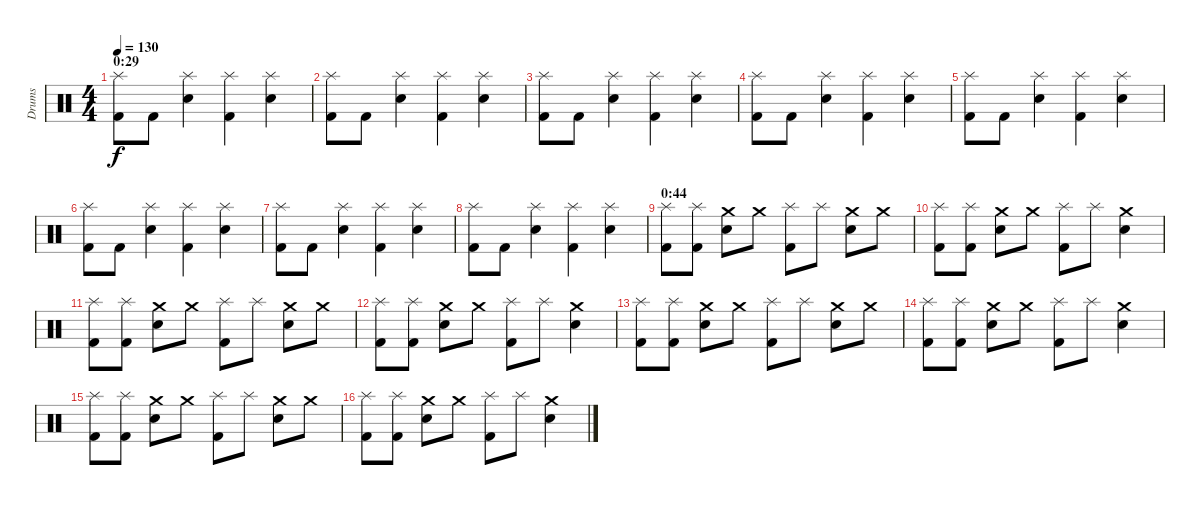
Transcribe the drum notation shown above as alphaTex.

\track ("Drums" "Drums") {instrument percussion}
\staff {score}
\articulation defaults
\ts (4 4)
\section ("" "0:29")
\tempo 130
\clef neutral
\ks c
("Splash (hit)" "Kick (hit) 2").8{dy f} "Kick (hit) 2".8 ("Splash (hit)" "Snare (hit) 2").4 ("Splash (hit)" "Kick (hit) 2").4 ("Splash (hit)" "Snare (hit) 2").4 |
("Splash (hit)" "Kick (hit) 2").8 "Kick (hit) 2".8 ("Splash (hit)" "Snare (hit) 2").4 ("Splash (hit)" "Kick (hit) 2").4 ("Splash (hit)" "Snare (hit) 2").4 |
("Splash (hit)" "Kick (hit) 2").8 "Kick (hit) 2".8 ("Splash (hit)" "Snare (hit) 2").4 ("Splash (hit)" "Kick (hit) 2").4 ("Splash (hit)" "Snare (hit) 2").4 |
("Splash (hit)" "Kick (hit) 2").8 "Kick (hit) 2".8 ("Splash (hit)" "Snare (hit) 2").4 ("Splash (hit)" "Kick (hit) 2").4 ("Splash (hit)" "Snare (hit) 2").4 |
("Splash (hit)" "Kick (hit) 2").8 "Kick (hit) 2".8 ("Splash (hit)" "Snare (hit) 2").4 ("Splash (hit)" "Kick (hit) 2").4 ("Splash (hit)" "Snare (hit) 2").4 |
("Splash (hit)" "Kick (hit) 2").8 "Kick (hit) 2".8 ("Splash (hit)" "Snare (hit) 2").4 ("Splash (hit)" "Kick (hit) 2").4 ("Splash (hit)" "Snare (hit) 2").4 |
("Splash (hit)" "Kick (hit) 2").8 "Kick (hit) 2".8 ("Splash (hit)" "Snare (hit) 2").4 ("Splash (hit)" "Kick (hit) 2").4 ("Splash (hit)" "Snare (hit) 2").4 |
("Splash (hit)" "Kick (hit) 2").8 "Kick (hit) 2".8 ("Splash (hit)" "Snare (hit) 2").4 ("Splash (hit)" "Kick (hit) 2").4 ("Splash (hit)" "Snare (hit) 2").4 |
\section ("" "0:44")
("Splash (hit)" "Kick (hit) 2").8 ("Splash (hit)" "Kick (hit) 2").8 ("Crash medium (hit)" "Snare (hit) 2").8 "Crash medium (hit)".8 ("Splash (hit)" "Kick (hit) 2").8 "Splash (hit)".8 ("Crash medium (hit)" "Snare (hit) 2").8 "Crash medium (hit)".8 |
("Splash (hit)" "Kick (hit) 2").8 ("Splash (hit)" "Kick (hit) 2").8 ("Crash medium (hit)" "Snare (hit) 2").8 "Crash medium (hit)".8 ("Splash (hit)" "Kick (hit) 2").8 "Splash (hit)".8 ("Crash medium (hit)" "Snare (hit) 2").4 |
("Splash (hit)" "Kick (hit) 2").8 ("Splash (hit)" "Kick (hit) 2").8 ("Crash medium (hit)" "Snare (hit) 2").8 "Crash medium (hit)".8 ("Splash (hit)" "Kick (hit) 2").8 "Splash (hit)".8 ("Crash medium (hit)" "Snare (hit) 2").8 "Crash medium (hit)".8 |
("Splash (hit)" "Kick (hit) 2").8 ("Splash (hit)" "Kick (hit) 2").8 ("Crash medium (hit)" "Snare (hit) 2").8 "Crash medium (hit)".8 ("Splash (hit)" "Kick (hit) 2").8 "Splash (hit)".8 ("Crash medium (hit)" "Snare (hit) 2").4 |
("Splash (hit)" "Kick (hit) 2").8 ("Splash (hit)" "Kick (hit) 2").8 ("Crash medium (hit)" "Snare (hit) 2").8 "Crash medium (hit)".8 ("Splash (hit)" "Kick (hit) 2").8 "Splash (hit)".8 ("Crash medium (hit)" "Snare (hit) 2").8 "Crash medium (hit)".8 |
("Splash (hit)" "Kick (hit) 2").8 ("Splash (hit)" "Kick (hit) 2").8 ("Crash medium (hit)" "Snare (hit) 2").8 "Crash medium (hit)".8 ("Splash (hit)" "Kick (hit) 2").8 "Splash (hit)".8 ("Crash medium (hit)" "Snare (hit) 2").4 |
("Splash (hit)" "Kick (hit) 2").8 ("Splash (hit)" "Kick (hit) 2").8 ("Crash medium (hit)" "Snare (hit) 2").8 "Crash medium (hit)".8 ("Splash (hit)" "Kick (hit) 2").8 "Splash (hit)".8 ("Crash medium (hit)" "Snare (hit) 2").8 "Crash medium (hit)".8 |
("Splash (hit)" "Kick (hit) 2").8 ("Splash (hit)" "Kick (hit) 2").8 ("Crash medium (hit)" "Snare (hit) 2").8 "Crash medium (hit)".8 ("Splash (hit)" "Kick (hit) 2").8 "Splash (hit)".8 ("Crash medium (hit)" "Snare (hit) 2").4
